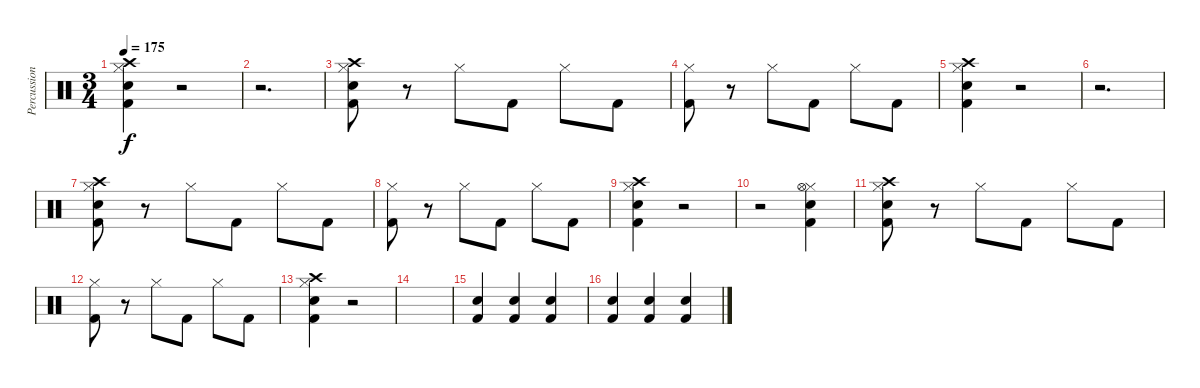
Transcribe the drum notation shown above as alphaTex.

\track ("Percussion" "Percussion") {instrument percussion}
\staff {score}
\articulation defaults
\ts (3 4)
\tempo 175
\clef neutral
\ks c
("Hi-Hat (closed)" "Crash high (hit)" "Electric Snare (hit)" "Kick (hit) 2").4{dy f} r.2 |
r.2{d} |
("Hi-Hat (closed)" "Crash high (hit)" "Electric Snare (hit)" "Kick (hit) 2").8 r.8 "Hi-Hat (closed)".8 "Kick (hit) 2".8 "Hi-Hat (closed)".8 "Kick (hit) 2".8 |
("Hi-Hat (closed)" "Kick (hit) 2").8 r.8 "Hi-Hat (closed)".8 "Kick (hit) 2".8 "Hi-Hat (closed)".8 "Kick (hit) 2".8 |
("Hi-Hat (closed)" "Crash high (hit)" "Electric Snare (hit)" "Kick (hit) 2").4 r.2 |
r.2{d} |
("Hi-Hat (closed)" "Crash high (hit)" "Electric Snare (hit)" "Kick (hit) 2").8 r.8 "Hi-Hat (closed)".8 "Kick (hit) 2".8 "Hi-Hat (closed)".8 "Kick (hit) 2".8 |
("Hi-Hat (closed)" "Kick (hit) 2").8 r.8 "Hi-Hat (closed)".8 "Kick (hit) 2".8 "Hi-Hat (closed)".8 "Kick (hit) 2".8 |
("Hi-Hat (closed)" "Crash high (hit)" "Electric Snare (hit)" "Kick (hit) 2").4 r.2 |
r.2 ("Hi-Hat (closed)" "Hi-Hat (open)" "Electric Snare (hit)" "Kick (hit) 2").4 |
("Hi-Hat (closed)" "Crash high (hit)" "Electric Snare (hit)" "Kick (hit) 2").8 r.8 "Hi-Hat (closed)".8 "Kick (hit) 2".8 "Hi-Hat (closed)".8 "Kick (hit) 2".8 |
("Hi-Hat (closed)" "Kick (hit) 2").8 r.8 "Hi-Hat (closed)".8 "Kick (hit) 2".8 "Hi-Hat (closed)".8 "Kick (hit) 2".8 |
("Hi-Hat (closed)" "Crash high (hit)" "Electric Snare (hit)" "Kick (hit) 2").4 r.2 |
|
("Electric Snare (hit)" "Kick (hit) 2").4 ("Electric Snare (hit)" "Kick (hit) 2").4{volume 11} ("Electric Snare (hit)" "Kick (hit) 2").4 |
("Electric Snare (hit)" "Kick (hit) 2").4 ("Electric Snare (hit)" "Kick (hit) 2").4 ("Electric Snare (hit)" "Kick (hit) 2").4
